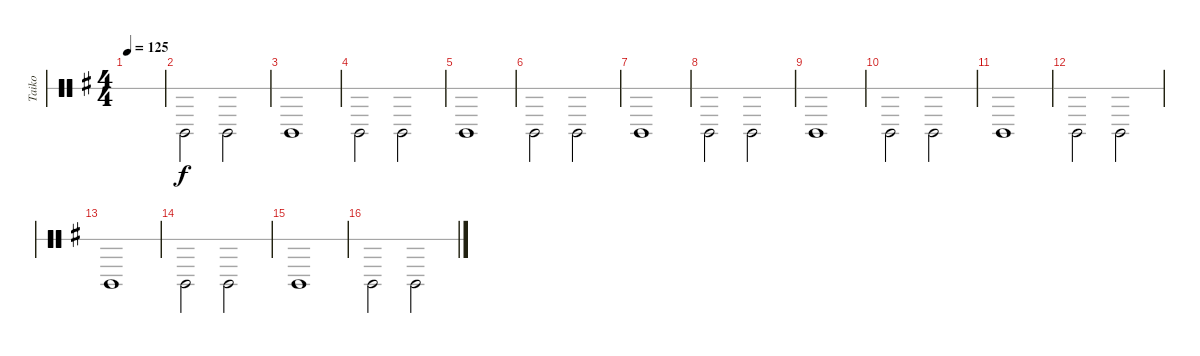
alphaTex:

\defaultSystemsLayout 4
\bracketExtendMode groupsimilarinstruments
\otherSystemsTrackNameOrientation horizontal
\track ("Taiko Drum" "Taiko") {instrument percussion}
\staff {score 1}
\articulation defaults
\ts (4 4)
\tempo 125
\clef neutral
\scale
0.474178
\ks g
|
\scale
0.262911 "Timbale low (hit)"{acc forcenatural}.2{beam Down} "Timbale low (hit)"{acc forcenatural}.2{beam Down} |
"Timbale low (hit)"{acc forcenatural}.1{beam Down} |
"Timbale low (hit)"{acc forcenatural}.2{beam Down} "Timbale low (hit)"{acc forcenatural}.2{beam Down} |
"Timbale low (hit)"{acc forcenatural}.1{beam Down} |
\scale
0.262911 "Timbale low (hit)"{acc forcenatural}.2{beam Down} "Timbale low (hit)"{acc forcenatural}.2{beam Down} |
\scale
0.333333 "Timbale low (hit)"{acc forcenatural}.1{beam Down} |
\scale
0.333333 "Timbale low (hit)"{acc forcenatural}.2{beam Down} "Timbale low (hit)"{acc forcenatural}.2{beam Down} |
"Timbale low (hit)"{acc forcenatural}.1{beam Down} |
\scale
0.333333 "Timbale low (hit)"{acc forcenatural}.2{beam Down} "Timbale low (hit)"{acc forcenatural}.2{beam Down} |
\scale
0.333333 "Timbale low (hit)"{acc forcenatural}.1{beam Down} |
\scale
0.333333 "Timbale low (hit)"{acc forcenatural}.2{beam Down} "Timbale low (hit)"{acc forcenatural}.2{beam Down} |
\scale
0.333333 "Timbale low (hit)"{acc forcenatural}.1{beam Down} |
\scale
0.333333 "Timbale low (hit)"{acc forcenatural}.2{beam Down} "Timbale low (hit)"{acc forcenatural}.2{beam Down} |
\scale
0.333333 "Timbale low (hit)"{acc forcenatural}.1{beam Down} |
\scale
0.333333 "Timbale low (hit)"{acc forcenatural}.2{beam Down} "Timbale low (hit)"{acc forcenatural}.2{beam Down}
